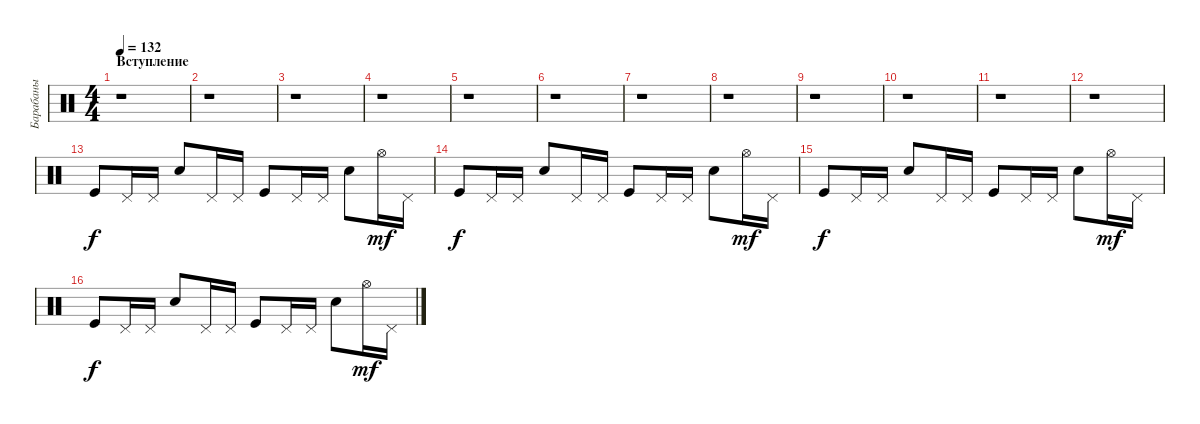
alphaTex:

\track ("Барабаны" "Барабаны") {instrument percussion}
\staff {score}
\articulation defaults
\ts (4 4)
\section ("" "Вступление")
\tempo 132
\clef neutral
\ks c
r.1{dy f} |
r.1 |
r.1 |
r.1 |
r.1 |
r.1 |
r.1 |
r.1 |
r.1 |
r.1 |
r.1 |
r.1 |
"Kick (hit)".8 "Pedal Hi-Hat (hit)".16 "Pedal Hi-Hat (hit)".16 "Snare (hit) 2".8 "Pedal Hi-Hat (hit)".16 "Pedal Hi-Hat (hit)".16 "Kick (hit)".8 "Pedal Hi-Hat (hit)".16 "Pedal Hi-Hat (hit)".16 "Snare (hit) 2".8 "Hi-Hat (open)".16{dy mf} "Pedal Hi-Hat (hit)".16 |
"Kick (hit)".8{dy f} "Pedal Hi-Hat (hit)".16 "Pedal Hi-Hat (hit)".16 "Snare (hit) 2".8 "Pedal Hi-Hat (hit)".16 "Pedal Hi-Hat (hit)".16 "Kick (hit)".8 "Pedal Hi-Hat (hit)".16 "Pedal Hi-Hat (hit)".16 "Snare (hit) 2".8 "Hi-Hat (open)".16{dy mf} "Pedal Hi-Hat (hit)".16 |
"Kick (hit)".8{dy f} "Pedal Hi-Hat (hit)".16 "Pedal Hi-Hat (hit)".16 "Snare (hit) 2".8 "Pedal Hi-Hat (hit)".16 "Pedal Hi-Hat (hit)".16 "Kick (hit)".8 "Pedal Hi-Hat (hit)".16 "Pedal Hi-Hat (hit)".16 "Snare (hit) 2".8 "Hi-Hat (open)".16{dy mf} "Pedal Hi-Hat (hit)".16 |
"Kick (hit)".8{dy f} "Pedal Hi-Hat (hit)".16 "Pedal Hi-Hat (hit)".16 "Snare (hit) 2".8 "Pedal Hi-Hat (hit)".16 "Pedal Hi-Hat (hit)".16 "Kick (hit)".8 "Pedal Hi-Hat (hit)".16 "Pedal Hi-Hat (hit)".16 "Snare (hit) 2".8 "Hi-Hat (open)".16{dy mf} "Pedal Hi-Hat (hit)".16
